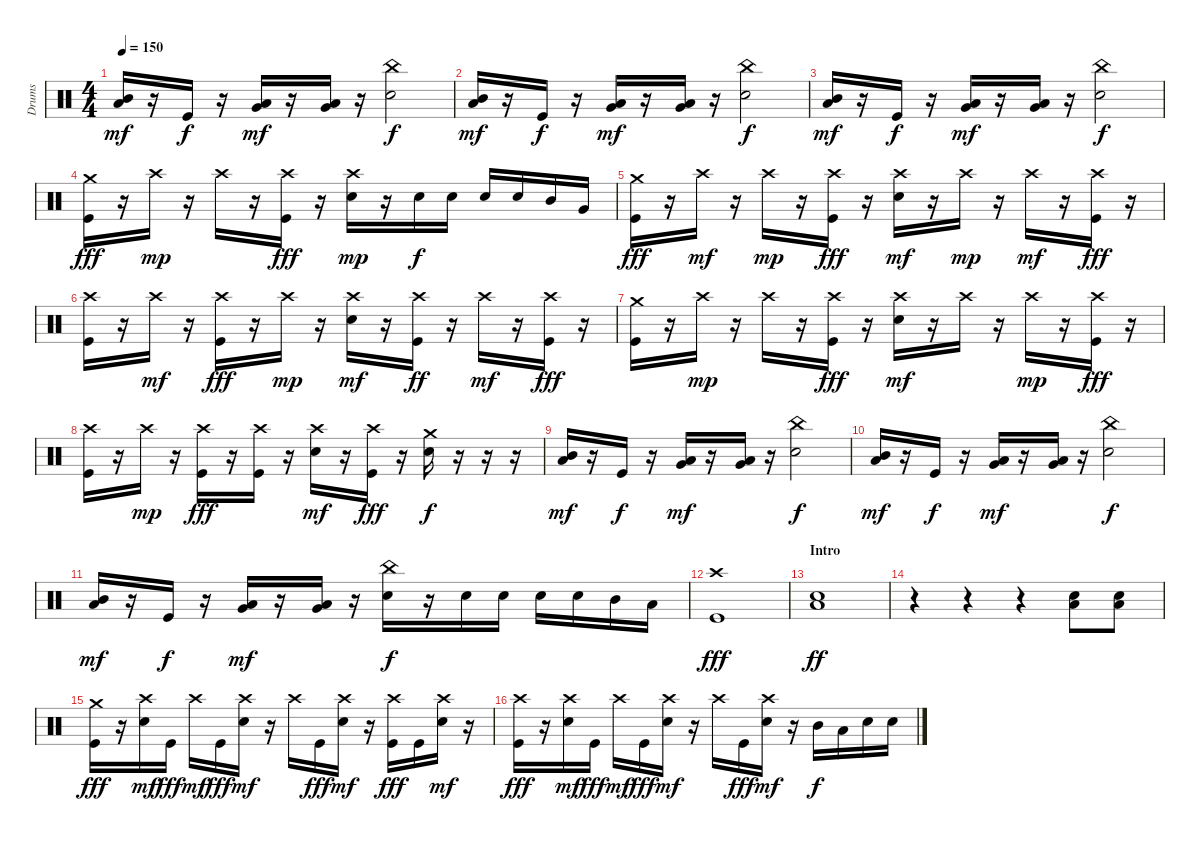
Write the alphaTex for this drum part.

\track ("Drums" "Drums") {instrument percussion}
\staff {score}
\articulation defaults
\ts (4 4)
\tempo 150
\clef neutral
\ks c
("Mid Tom (hit)" "Low Tom (hit)").16{dy mf} r.16 "Kick (hit)".16{dy f} r.16 ("Low Tom (hit)" "Very Low Tom (hit)").16{dy mf} r.16 ("Very Low Tom (hit)" "Low Floor Tom (hit)").16 r.16 ("China (hit)" "Electric Snare (hit)").2{dy f} |
("Mid Tom (hit)" "Low Tom (hit)").16{dy mf} r.16 "Kick (hit)".16{dy f} r.16 ("Low Tom (hit)" "Very Low Tom (hit)").16{dy mf} r.16 ("Very Low Tom (hit)" "Low Floor Tom (hit)").16 r.16 ("China (hit)" "Electric Snare (hit)").2{dy f} |
("Mid Tom (hit)" "Low Tom (hit)").16{dy mf} r.16 "Kick (hit)".16{dy f} r.16 ("Low Tom (hit)" "Very Low Tom (hit)").16{dy mf} r.16 ("Very Low Tom (hit)" "Low Floor Tom (hit)").16 r.16 ("China (hit)" "Electric Snare (hit)").2{dy f} |
("Crash medium (hit)" "Kick (hit)").16{dy fff} r.16 "Crash high (hit)".16{dy mp} r.16 "Crash high (hit)".16 r.16 ("Crash high (hit)" "Kick (hit)").16{dy fff} r.16 ("Crash high (hit)" "Electric Snare (hit)").16{dy mp} r.16 "Electric Snare (hit)".16{dy f} "Electric Snare (hit)".16 "Electric Snare (hit)".16 "Electric Snare (hit)".16 "Mid Tom (hit)".16 "Very Low Tom (hit)".16 |
("Crash medium (hit)" "Kick (hit)").16{dy fff} r.16 "Crash high (hit)".16{dy mf} r.16 "Crash high (hit)".16{dy mp} r.16 ("Crash high (hit)" "Kick (hit)").16{dy fff} r.16 ("Crash high (hit)" "Electric Snare (hit)").16{dy mf} r.16 "Crash high (hit)".16{dy mp} r.16 "Crash high (hit)".16{dy mf} r.16 ("Crash high (hit)" "Kick (hit)").16{dy fff} r.16 |
("Crash high (hit)" "Kick (hit)").16 r.16 "Crash high (hit)".16{dy mf} r.16 ("Crash high (hit)" "Kick (hit)").16{dy fff} r.16 "Crash high (hit)".16{dy mp} r.16 ("Crash high (hit)" "Electric Snare (hit)").16{dy mf} r.16 ("Crash high (hit)" "Kick (hit)").16{dy ff} r.16 "Crash high (hit)".16{dy mf} r.16 ("Crash high (hit)" "Kick (hit)").16{dy fff} r.16 |
("Crash medium (hit)" "Kick (hit)").16 r.16 "Crash high (hit)".16{dy mp} r.16 "Crash high (hit)".16 r.16 ("Crash high (hit)" "Kick (hit)").16{dy fff} r.16 ("Crash high (hit)" "Electric Snare (hit)").16{dy mf} r.16 "Crash high (hit)".16 r.16 "Crash high (hit)".16{dy mp} r.16 ("Crash high (hit)" "Kick (hit)").16{dy fff} r.16 |
("Crash high (hit)" "Kick (hit)").16 r.16 "Crash high (hit)".16{dy mp} r.16 ("Crash high (hit)" "Kick (hit)").16{dy fff} r.16 ("Crash high (hit)" "Kick (hit)").16 r.16 ("Crash high (hit)" "Electric Snare (hit)").16{dy mf} r.16 ("Crash high (hit)" "Kick (hit)").16{dy fff} r.16 ("Crash medium (hit)" "Electric Snare (hit)").16{dy f} r.16 r.16 r.16 |
("Mid Tom (hit)" "Low Tom (hit)").16{dy mf} r.16 "Kick (hit)".16{dy f} r.16 ("Low Tom (hit)" "Very Low Tom (hit)").16{dy mf} r.16 ("Very Low Tom (hit)" "Low Floor Tom (hit)").16 r.16 ("China (hit)" "Electric Snare (hit)").2{dy f} |
("Mid Tom (hit)" "Low Tom (hit)").16{dy mf} r.16 "Kick (hit)".16{dy f} r.16 ("Low Tom (hit)" "Very Low Tom (hit)").16{dy mf} r.16 ("Very Low Tom (hit)" "Low Floor Tom (hit)").16 r.16 ("China (hit)" "Electric Snare (hit)").2{dy f} |
("Mid Tom (hit)" "Low Tom (hit)").16{dy mf} r.16 "Kick (hit)".16{dy f} r.16 ("Low Tom (hit)" "Very Low Tom (hit)").16{dy mf} r.16 ("Very Low Tom (hit)" "Low Floor Tom (hit)").16 r.16 ("China (hit)" "Electric Snare (hit)").16{dy f} r.16 "Electric Snare (hit)".16 "Electric Snare (hit)".16 "Electric Snare (hit)".16 "Electric Snare (hit)".16 "Mid Tom (hit)".16 "Low Tom (hit)".16 |
("Crash high (hit)" "Kick (hit)").1{dy fff} |
\section ("" "Intro")
("Electric Snare (hit)" "Low Floor Tom (hit)").1{dy ff} |
r.4 r.4 r.4 ("Electric Snare (hit)" "Low Floor Tom (hit)").8 ("Electric Snare (hit)" "Low Floor Tom (hit)").8 |
("Crash medium (hit)" "Kick (hit)").16{dy fff} r.16 ("Crash high (hit)" "Electric Snare (hit)").16{dy mf} "Kick (hit)".16{dy fff} "Crash high (hit)".16{dy mf} "Kick (hit)".16{dy fff} ("Crash high (hit)" "Electric Snare (hit)").16{dy mf} r.16 "Crash high (hit)".16 "Kick (hit)".16{dy fff} ("Crash high (hit)" "Electric Snare (hit)").16{dy mf} r.16 ("Crash high (hit)" "Kick (hit)").16{dy fff} "Kick (hit)".16 ("Crash high (hit)" "Electric Snare (hit)").16{dy mf} r.16 |
("Crash high (hit)" "Kick (hit)").16{dy fff} r.16 ("Crash high (hit)" "Electric Snare (hit)").16{dy mf} "Kick (hit)".16{dy fff} "Crash high (hit)".16{dy mf} "Kick (hit)".16{dy fff} ("Crash high (hit)" "Electric Snare (hit)").16{dy mf} r.16 "Crash high (hit)".16 "Kick (hit)".16{dy fff} ("Crash high (hit)" "Electric Snare (hit)").16{dy mf} r.16 "Mid Tom (hit)".16{dy f} "Low Tom (hit)".16 "Electric Snare (hit)".16 "Electric Snare (hit)".16
